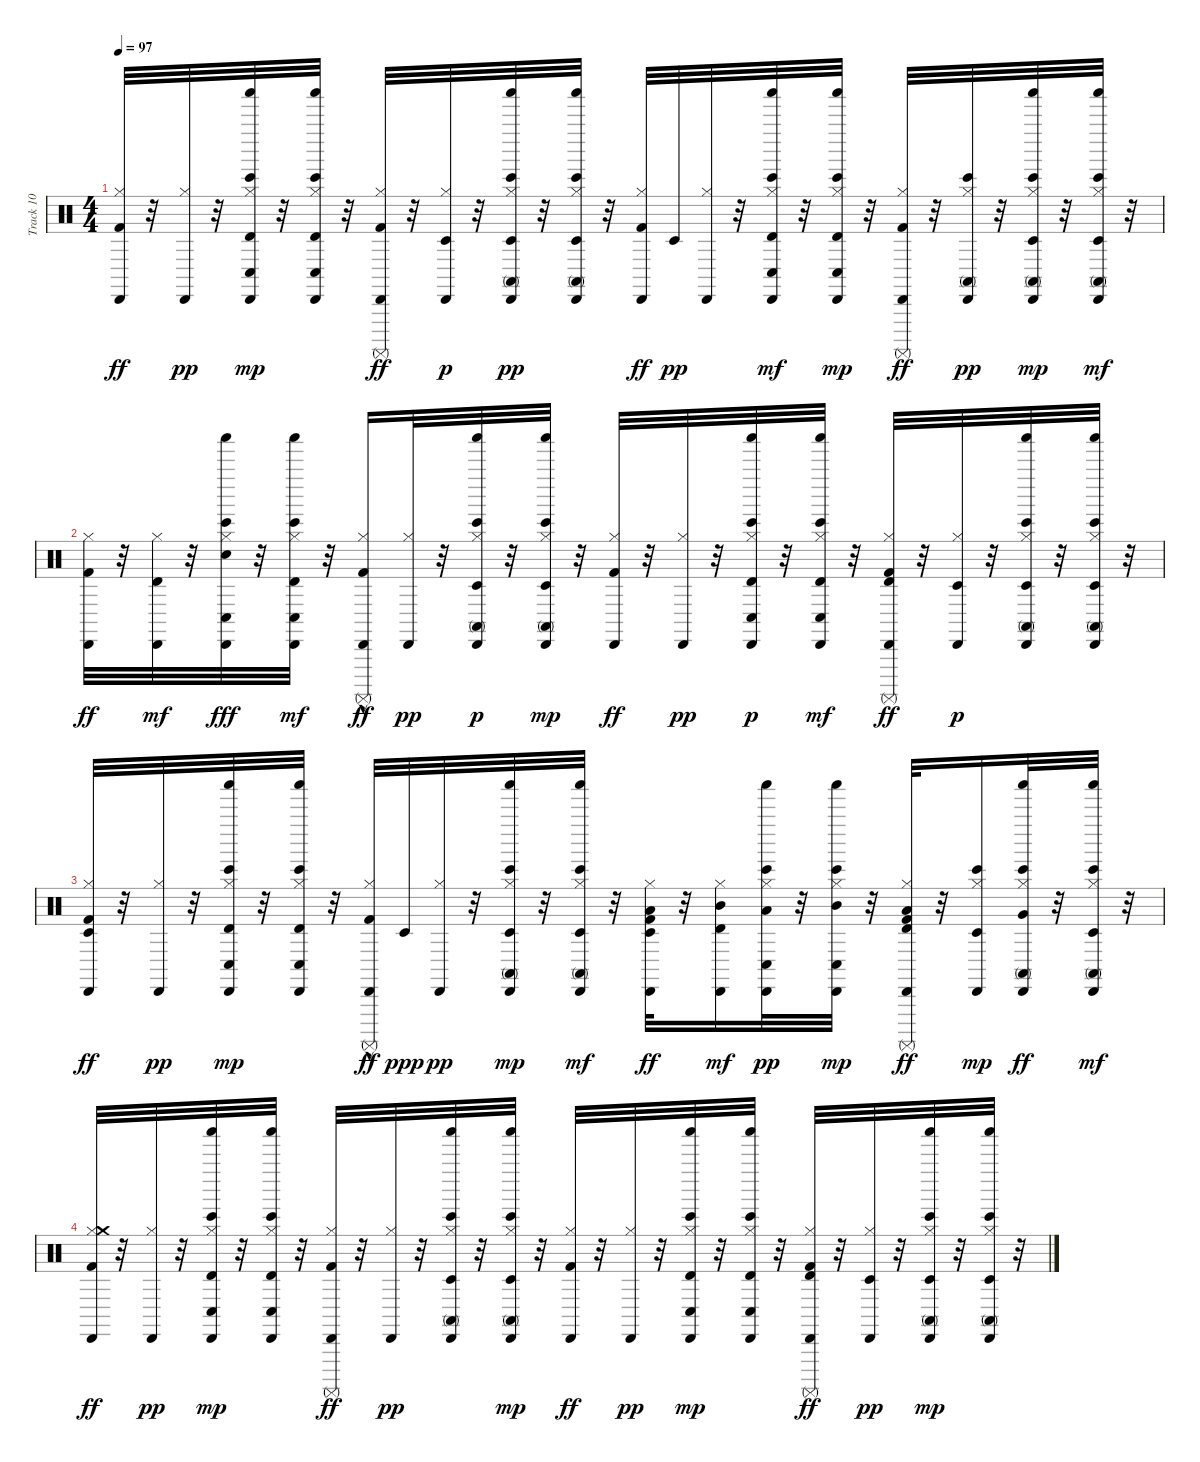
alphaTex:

\track ("Track 10" "Track 10") {instrument percussion}
\staff {score}
\articulation defaults
\ts (4 4)
\tempo 97
\clef neutral
\ks c
("Hi-Hat (closed)" "Cabasa (hit)" "Kick (hit) 2").32{dy ff} r.32 ("Hi-Hat (closed)" "Cabasa (hit)").32{dy pp} r.32 ("Hi-Hat (closed)" "Shaker (hit)" "Conga low (hit)" "Bongo High (hit)" "Cabasa (hit)" "Timbale high (hit)").32{dy mp} r.32 ("Hi-Hat (closed)" "Shaker (hit)" "Conga low (hit)" "Bongo High (hit)" "Cabasa (hit)" "Timbale high (hit)").32 r.32 ("Hi-Hat (closed)" "Cabasa (hit)" "Surdo (mute)" "Kick (hit) 2").32{dy ff} r.32 ("Hi-Hat (closed)" "Cabasa (hit)" "Timbale low (hit)").32{dy p} r.32 ("Hi-Hat (closed)" "Shaker (hit)" "Conga high (mute)" "Bongo High (hit)" "Cabasa (hit)" "Timbale low (hit)").32{dy pp} r.32 ("Hi-Hat (closed)" "Shaker (hit)" "Conga high (mute)" "Bongo High (hit)" "Cabasa (hit)" "Timbale low (hit)").32 r.32 ("Hi-Hat (closed)" "Cabasa (hit)" "Kick (hit) 2").32{dy ff} "Timbale low (hit)".32{dy pp} ("Hi-Hat (closed)" "Cabasa (hit)").32 r.32 ("Hi-Hat (closed)" "Shaker (hit)" "Conga low (hit)" "Bongo High (hit)" "Cabasa (hit)" "Timbale high (hit)").32{dy mf} r.32 ("Hi-Hat (closed)" "Shaker (hit)" "Conga low (hit)" "Bongo High (hit)" "Cabasa (hit)" "Timbale high (hit)").32{dy mp} r.32 ("Hi-Hat (closed)" "Cabasa (hit)" "Surdo (mute)" "Kick (hit) 2").32{dy ff} r.32 ("Hi-Hat (closed)" "Conga high (mute)" "Bongo High (hit)" "Cabasa (hit)").32{dy pp} r.32 ("Hi-Hat (closed)" "Shaker (hit)" "Conga high (mute)" "Bongo High (hit)" "Cabasa (hit)" "Timbale low (hit)").32{dy mp} r.32 ("Hi-Hat (closed)" "Shaker (hit)" "Conga high (mute)" "Bongo High (hit)" "Cabasa (hit)" "Timbale low (hit)").32{dy mf} r.32 |
("Hi-Hat (closed)" "Cabasa (hit)" "Kick (hit) 2").32{dy ff} r.32 ("Hi-Hat (closed)" "Cabasa (hit)" "Timbale high (hit)").32{dy mf} r.32 ("Hi-Hat (closed)" "Shaker (hit)" "Conga low (hit)" "Bongo High (hit)" "Cabasa (hit)" "Snare (hit) 2").32{dy fff} r.32 ("Hi-Hat (closed)" "Shaker (hit)" "Conga low (hit)" "Bongo High (hit)" "Cabasa (hit)" "Timbale high (hit)").32{dy mf} r.32 ("Hi-Hat (closed)" "Cabasa (hit)" "Surdo (mute)"{hac} "Kick (hit) 2").16{dy ff} ("Hi-Hat (closed)" "Cabasa (hit)").32{dy pp} r.32 ("Hi-Hat (closed)" "Shaker (hit)" "Conga high (mute)" "Bongo High (hit)" "Cabasa (hit)" "Timbale low (hit)").32{dy p} r.32 ("Hi-Hat (closed)" "Shaker (hit)" "Conga high (mute)" "Bongo High (hit)" "Cabasa (hit)" "Timbale low (hit)").32{dy mp} r.32 ("Hi-Hat (closed)" "Cabasa (hit)" "Kick (hit) 2").32{dy ff} r.32 ("Hi-Hat (closed)" "Cabasa (hit)").32{dy pp} r.32 ("Hi-Hat (closed)" "Shaker (hit)" "Conga low (hit)" "Bongo High (hit)" "Cabasa (hit)" "Timbale high (hit)").32{dy p} r.32 ("Hi-Hat (closed)" "Shaker (hit)" "Conga low (hit)" "Bongo High (hit)" "Cabasa (hit)" "Timbale high (hit)").32{dy mf} r.32 ("Hi-Hat (closed)" "Cabasa (hit)" "Timbale high (hit)" "Surdo (mute)" "Kick (hit) 2").32{dy ff} r.32 ("Hi-Hat (closed)" "Cabasa (hit)" "Timbale low (hit)").32{dy p} r.32 ("Hi-Hat (closed)" "Shaker (hit)" "Conga high (mute)" "Bongo High (hit)" "Cabasa (hit)" "Timbale low (hit)").32 r.32 ("Hi-Hat (closed)" "Shaker (hit)" "Conga high (mute)" "Bongo High (hit)" "Cabasa (hit)" "Timbale low (hit)").32 r.32 |
("Hi-Hat (closed)" "Cabasa (hit)" "Timbale low (hit)" "Kick (hit) 2").32{dy ff} r.32 ("Hi-Hat (closed)" "Cabasa (hit)").32{dy pp} r.32 ("Hi-Hat (closed)" "Shaker (hit)" "Conga low (hit)" "Bongo High (hit)" "Cabasa (hit)" "Timbale high (hit)").32{dy mp} r.32 ("Hi-Hat (closed)" "Shaker (hit)" "Conga low (hit)" "Bongo High (hit)" "Cabasa (hit)" "Timbale high (hit)").32 r.32 ("Hi-Hat (closed)" "Cabasa (hit)" "Surdo (mute)"{hac} "Kick (hit) 2").32{dy ff} "Timbale low (hit)".32{dy ppp} ("Hi-Hat (closed)" "Cabasa (hit)").32{dy pp} r.32 ("Hi-Hat (closed)" "Shaker (hit)" "Conga high (mute)" "Bongo High (hit)" "Cabasa (hit)" "Timbale low (hit)").32{dy mp} r.32 ("Hi-Hat (closed)" "Shaker (hit)" "Conga high (mute)" "Bongo High (hit)" "Cabasa (hit)" "Timbale low (hit)").32{dy mf} r.32 ("Hi-Hat (closed)" "Cabasa (hit)" "Low Tom (hit)" "Timbale low (hit)" "Kick (hit) 2").32{dy ff} r.32 ("Hi-Hat (closed)" "Cabasa (hit)" "Mid Tom (hit)" "Timbale high (hit)").16{dy mf} ("Hi-Hat (closed)" "Shaker (hit)" "Conga low (hit)" "Bongo High (hit)" "Cabasa (hit)" "Low Tom (hit)").32{dy pp} r.32 ("Hi-Hat (closed)" "Shaker (hit)" "Conga low (hit)" "Bongo High (hit)" "Cabasa (hit)" "Mid Tom (hit)").32{dy mp} r.32 ("Hi-Hat (closed)" "Cabasa (hit)" "Low Tom (hit)" "Timbale high (hit)" "Surdo (mute)" "Kick (hit) 2").32{dy ff} r.32 ("Hi-Hat (closed)" "Bongo High (hit)" "Cabasa (hit)" "Timbale low (hit)").16{dy mp} ("Hi-Hat (closed)" "Shaker (hit)" "Conga high (mute)" "Bongo High (hit)" "Cabasa (hit)" "Very Low Tom (hit)").32{dy ff} r.32 ("Hi-Hat (closed)" "Shaker (hit)" "Conga high (mute)" "Bongo High (hit)" "Cabasa (hit)" "Timbale low (hit)").32{dy mf} r.32 |
("Hi-Hat (closed)" "Cabasa (hit)" "Crash medium (hit)" "Kick (hit) 2").32{dy ff} r.32 ("Hi-Hat (closed)" "Cabasa (hit)").32{dy pp} r.32 ("Hi-Hat (closed)" "Shaker (hit)" "Conga low (hit)" "Bongo High (hit)" "Cabasa (hit)" "Timbale high (hit)").32{dy mp} r.32 ("Hi-Hat (closed)" "Shaker (hit)" "Conga low (hit)" "Bongo High (hit)" "Cabasa (hit)" "Timbale high (hit)").32 r.32 ("Hi-Hat (closed)" "Cabasa (hit)" "Surdo (mute)" "Kick (hit) 2").32{dy ff} r.32 ("Hi-Hat (closed)" "Cabasa (hit)").32{dy pp} r.32 ("Hi-Hat (closed)" "Shaker (hit)" "Conga high (mute)" "Bongo High (hit)" "Cabasa (hit)" "Timbale low (hit)").32 r.32 ("Hi-Hat (closed)" "Shaker (hit)" "Conga high (mute)" "Bongo High (hit)" "Cabasa (hit)" "Timbale low (hit)").32{dy mp} r.32 ("Hi-Hat (closed)" "Cabasa (hit)" "Kick (hit) 2").32{dy ff} r.32 ("Hi-Hat (closed)" "Cabasa (hit)").32{dy pp} r.32 ("Hi-Hat (closed)" "Shaker (hit)" "Conga low (hit)" "Bongo High (hit)" "Cabasa (hit)" "Timbale high (hit)").32{dy mp} r.32 ("Hi-Hat (closed)" "Shaker (hit)" "Conga low (hit)" "Bongo High (hit)" "Cabasa (hit)" "Timbale high (hit)").32 r.32 ("Hi-Hat (closed)" "Cabasa (hit)" "Timbale high (hit)" "Surdo (mute)" "Kick (hit) 2").32{dy ff} r.32 ("Hi-Hat (closed)" "Cabasa (hit)" "Timbale low (hit)").32{dy pp} r.32 ("Hi-Hat (closed)" "Shaker (hit)" "Conga high (mute)" "Bongo High (hit)" "Cabasa (hit)" "Timbale low (hit)").32{dy mp} r.32 ("Hi-Hat (closed)" "Shaker (hit)" "Conga high (mute)" "Bongo High (hit)" "Cabasa (hit)" "Timbale low (hit)").32 r.32
